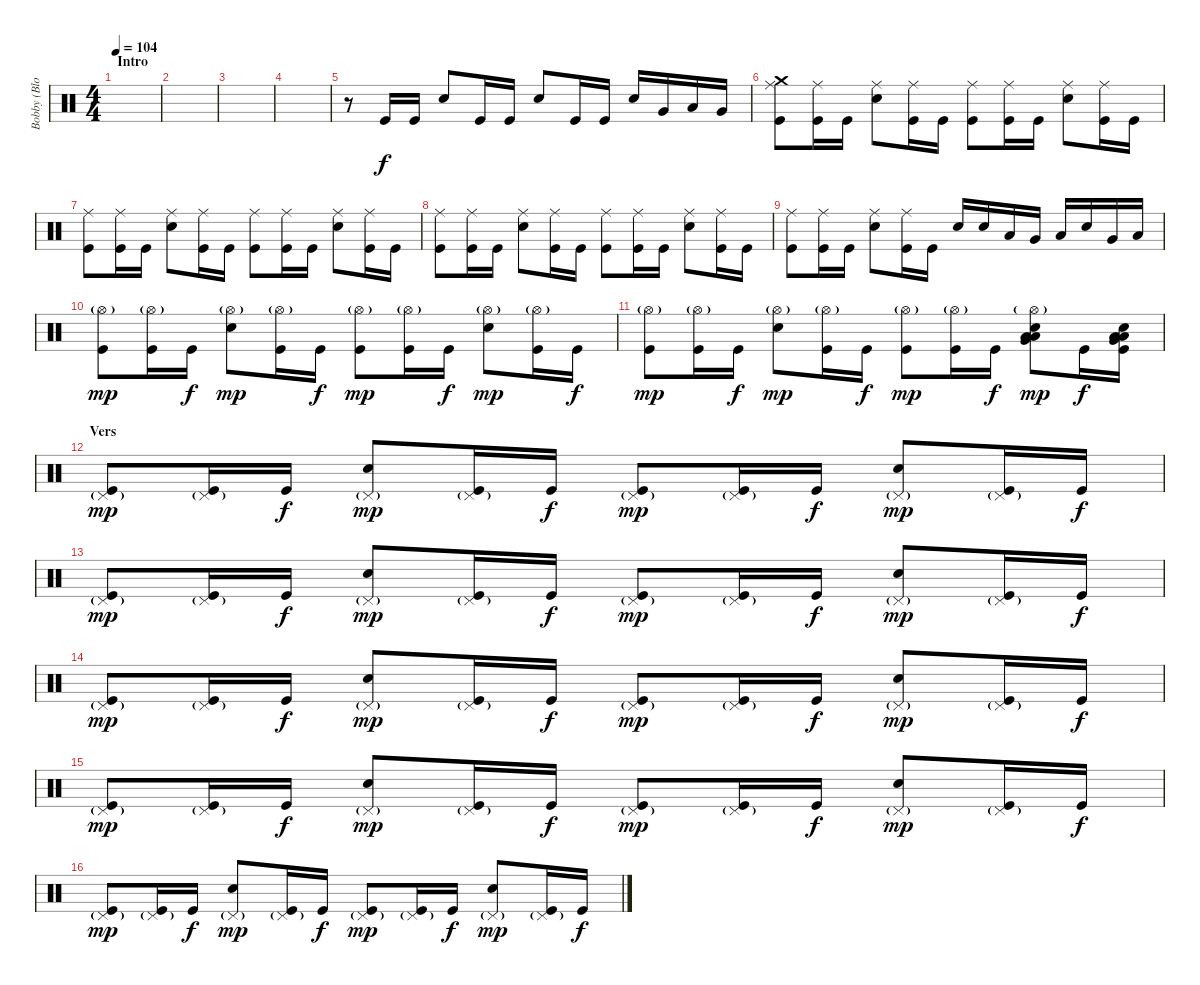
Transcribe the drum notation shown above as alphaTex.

\track ("Bobby (Blotz) Blotzer - Drums" "Bobby (Blo") {instrument percussion}
\staff {score}
\articulation defaults
\ts (4 4)
\section ("" "Intro")
\tempo 104
\clef neutral
\ks c
|
|
|
|
r.8 "Kick (hit)".16 "Kick (hit)".16 "Snare (hit) 2".8 "Kick (hit)".16 "Kick (hit)".16 "Snare (hit) 2".8 "Kick (hit)".16 "Kick (hit)".16 "Snare (hit) 2".16 "Very Low Tom (hit)".16 "Low Floor Tom (hit)".16 "Very Low Tom (hit)".16 |
("Ride (middle)" "Crash medium (hit)" "Kick (hit)").8 ("Ride (middle)" "Kick (hit)").16 "Kick (hit)".16 ("Ride (middle)" "Snare (hit) 2").8 ("Ride (middle)" "Kick (hit)").16 "Kick (hit)".16 ("Ride (middle)" "Kick (hit)").8 ("Ride (middle)" "Kick (hit)").16 "Kick (hit)".16 ("Ride (middle)" "Snare (hit) 2").8 ("Ride (middle)" "Kick (hit)").16 "Kick (hit)".16 |
("Ride (middle)" "Kick (hit)").8 ("Ride (middle)" "Kick (hit)").16 "Kick (hit)".16 ("Ride (middle)" "Snare (hit) 2").8 ("Ride (middle)" "Kick (hit)").16 "Kick (hit)".16 ("Ride (middle)" "Kick (hit)").8 ("Ride (middle)" "Kick (hit)").16 "Kick (hit)".16 ("Ride (middle)" "Snare (hit) 2").8 ("Ride (middle)" "Kick (hit)").16 "Kick (hit)".16 |
("Ride (middle)" "Kick (hit)").8 ("Ride (middle)" "Kick (hit)").16 "Kick (hit)".16 ("Ride (middle)" "Snare (hit) 2").8 ("Ride (middle)" "Kick (hit)").16 "Kick (hit)".16 ("Ride (middle)" "Kick (hit)").8 ("Ride (middle)" "Kick (hit)").16 "Kick (hit)".16 ("Ride (middle)" "Snare (hit) 2").8 ("Ride (middle)" "Kick (hit)").16 "Kick (hit)".16 |
("Ride (middle)" "Kick (hit)").8 ("Ride (middle)" "Kick (hit)").16 "Kick (hit)".16 ("Ride (middle)" "Snare (hit) 2").8 ("Ride (middle)" "Kick (hit)").16 "Kick (hit)".16 "Snare (hit) 2".16 "Snare (hit) 2".16 "Low Tom (hit)".16 "Very Low Tom (hit)".16 "Low Floor Tom (hit)".16 "Snare (hit) 2".16 "Very Low Tom (hit)".16 "Low Floor Tom (hit)".16 |
("Hi-Hat (open)"{g} "Kick (hit)").8{dy mp} ("Hi-Hat (open)"{g} "Kick (hit)").16 "Kick (hit)".16{dy f} ("Hi-Hat (open)"{g} "Snare (hit) 2").8{dy mp} ("Hi-Hat (open)"{g} "Kick (hit)").16 "Kick (hit)".16{dy f} ("Hi-Hat (open)"{g} "Kick (hit)").8{dy mp} ("Hi-Hat (open)"{g} "Kick (hit)").16 "Kick (hit)".16{dy f} ("Hi-Hat (open)"{g} "Snare (hit) 2").8{dy mp} ("Hi-Hat (open)"{g} "Kick (hit)").16 "Kick (hit)".16{dy f} |
("Hi-Hat (open)"{g} "Kick (hit)").8{dy mp} ("Hi-Hat (open)"{g} "Kick (hit)").16 "Kick (hit)".16{dy f} ("Hi-Hat (open)"{g} "Snare (hit) 2").8{dy mp} ("Hi-Hat (open)"{g} "Kick (hit)").16 "Kick (hit)".16{dy f} ("Hi-Hat (open)"{g} "Kick (hit)").8{dy mp} ("Hi-Hat (open)"{g} "Kick (hit)").16 "Kick (hit)".16{dy f} ("Hi-Hat (open)"{g} "Very Low Tom (hit)" "Low Tom (hit)" "Snare (hit) 2" "Low Floor Tom (hit)").8{dy mp} "Kick (hit)".16{dy f} ("Very Low Tom (hit)" "Low Tom (hit)" "Snare (hit) 2" "Low Floor Tom (hit)" "Kick (hit)").16 |
\section ("" "Vers")
("Pedal Hi-Hat (hit)"{g} "Kick (hit)").8{dy mp} ("Pedal Hi-Hat (hit)"{g} "Kick (hit)").16 "Kick (hit)".16{dy f} ("Pedal Hi-Hat (hit)"{g} "Snare (hit) 2").8{dy mp} ("Pedal Hi-Hat (hit)"{g} "Kick (hit)").16 "Kick (hit)".16{dy f} ("Pedal Hi-Hat (hit)"{g} "Kick (hit)").8{dy mp} ("Pedal Hi-Hat (hit)"{g} "Kick (hit)").16 "Kick (hit)".16{dy f} ("Pedal Hi-Hat (hit)"{g} "Snare (hit) 2").8{dy mp} ("Pedal Hi-Hat (hit)"{g} "Kick (hit)").16 "Kick (hit)".16{dy f} |
("Pedal Hi-Hat (hit)"{g} "Kick (hit)").8{dy mp} ("Pedal Hi-Hat (hit)"{g} "Kick (hit)").16 "Kick (hit)".16{dy f} ("Pedal Hi-Hat (hit)"{g} "Snare (hit) 2").8{dy mp} ("Pedal Hi-Hat (hit)"{g} "Kick (hit)").16 "Kick (hit)".16{dy f} ("Pedal Hi-Hat (hit)"{g} "Kick (hit)").8{dy mp} ("Pedal Hi-Hat (hit)"{g} "Kick (hit)").16 "Kick (hit)".16{dy f} ("Pedal Hi-Hat (hit)"{g} "Snare (hit) 2").8{dy mp} ("Pedal Hi-Hat (hit)"{g} "Kick (hit)").16 "Kick (hit)".16{dy f} |
("Pedal Hi-Hat (hit)"{g} "Kick (hit)").8{dy mp} ("Pedal Hi-Hat (hit)"{g} "Kick (hit)").16 "Kick (hit)".16{dy f} ("Pedal Hi-Hat (hit)"{g} "Snare (hit) 2").8{dy mp} ("Pedal Hi-Hat (hit)"{g} "Kick (hit)").16 "Kick (hit)".16{dy f} ("Pedal Hi-Hat (hit)"{g} "Kick (hit)").8{dy mp} ("Pedal Hi-Hat (hit)"{g} "Kick (hit)").16 "Kick (hit)".16{dy f} ("Pedal Hi-Hat (hit)"{g} "Snare (hit) 2").8{dy mp} ("Pedal Hi-Hat (hit)"{g} "Kick (hit)").16 "Kick (hit)".16{dy f} |
("Pedal Hi-Hat (hit)"{g} "Kick (hit)").8{dy mp} ("Pedal Hi-Hat (hit)"{g} "Kick (hit)").16 "Kick (hit)".16{dy f} ("Pedal Hi-Hat (hit)"{g} "Snare (hit) 2").8{dy mp} ("Pedal Hi-Hat (hit)"{g} "Kick (hit)").16 "Kick (hit)".16{dy f} ("Pedal Hi-Hat (hit)"{g} "Kick (hit)").8{dy mp} ("Pedal Hi-Hat (hit)"{g} "Kick (hit)").16 "Kick (hit)".16{dy f} ("Pedal Hi-Hat (hit)"{g} "Snare (hit) 2").8{dy mp} ("Pedal Hi-Hat (hit)"{g} "Kick (hit)").16 "Kick (hit)".16{dy f} |
("Pedal Hi-Hat (hit)"{g} "Kick (hit)").8{dy mp} ("Pedal Hi-Hat (hit)"{g} "Kick (hit)").16 "Kick (hit)".16{dy f} ("Pedal Hi-Hat (hit)"{g} "Snare (hit) 2").8{dy mp} ("Pedal Hi-Hat (hit)"{g} "Kick (hit)").16 "Kick (hit)".16{dy f} ("Pedal Hi-Hat (hit)"{g} "Kick (hit)").8{dy mp} ("Pedal Hi-Hat (hit)"{g} "Kick (hit)").16 "Kick (hit)".16{dy f} ("Pedal Hi-Hat (hit)"{g} "Snare (hit) 2").8{dy mp} ("Pedal Hi-Hat (hit)"{g} "Kick (hit)").16 "Kick (hit)".16{dy f}
